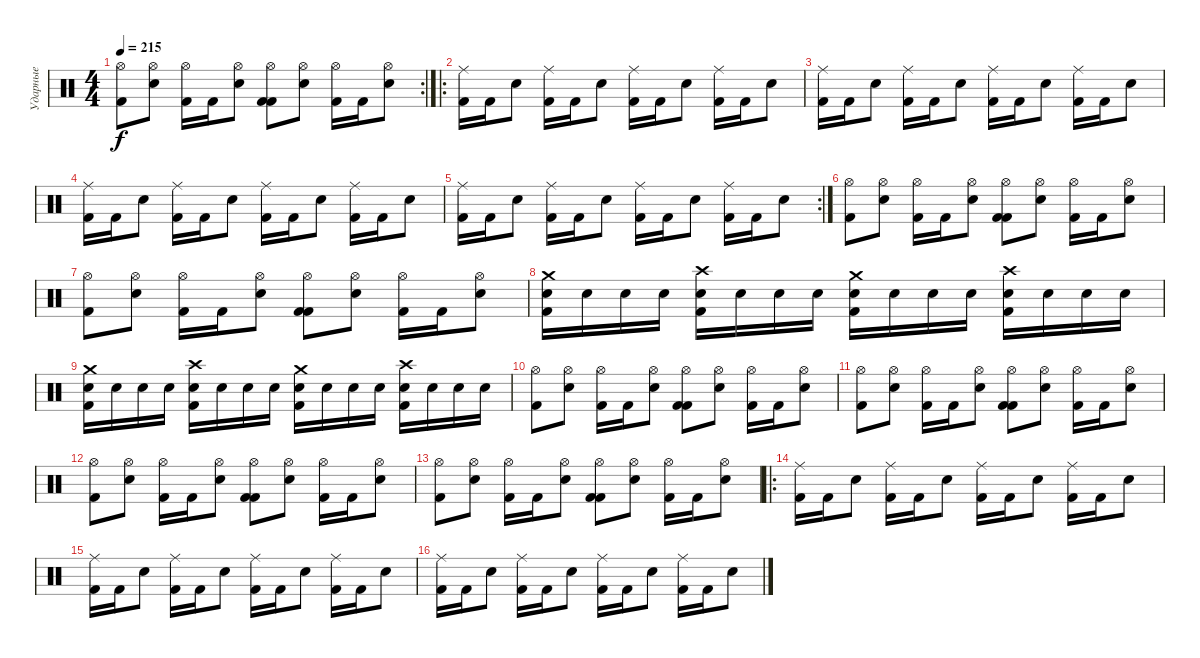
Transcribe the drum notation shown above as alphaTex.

\track ("Ударные" "Ударные") {instrument percussion}
\staff {score}
\articulation defaults
\rc 2
\ts (4 4)
\tempo 215
\clef neutral
\ks c
("Kick (hit) 2" "Hi-Hat (open)").8{dy f} ("Hi-Hat (open)" "Electric Snare (hit)").8 ("Kick (hit) 2" "Hi-Hat (open)").16 "Kick (hit) 2".16 ("Hi-Hat (open)" "Electric Snare (hit)").8 ("Kick (hit) 2" "Kick (hit) 2" "Hi-Hat (open)").8 ("Hi-Hat (open)" "Electric Snare (hit)").8 ("Kick (hit) 2" "Hi-Hat (open)").16 "Kick (hit) 2".16 ("Hi-Hat (open)" "Electric Snare (hit)").8 |
\ro
("Ride (middle)" "Kick (hit) 2").16 "Kick (hit) 2".16 "Electric Snare (hit)".8 ("Ride (middle)" "Kick (hit) 2").16 "Kick (hit) 2".16 "Electric Snare (hit)".8 ("Ride (middle)" "Kick (hit) 2").16 "Kick (hit) 2".16 "Electric Snare (hit)".8 ("Ride (middle)" "Kick (hit) 2").16 "Kick (hit) 2".16 "Electric Snare (hit)".8 |
("Ride (middle)" "Kick (hit) 2").16 "Kick (hit) 2".16 "Electric Snare (hit)".8 ("Ride (middle)" "Kick (hit) 2").16 "Kick (hit) 2".16 "Electric Snare (hit)".8 ("Ride (middle)" "Kick (hit) 2").16 "Kick (hit) 2".16 "Electric Snare (hit)".8 ("Ride (middle)" "Kick (hit) 2").16 "Kick (hit) 2".16 "Electric Snare (hit)".8 |
("Ride (middle)" "Kick (hit) 2").16 "Kick (hit) 2".16 "Electric Snare (hit)".8 ("Ride (middle)" "Kick (hit) 2").16 "Kick (hit) 2".16 "Electric Snare (hit)".8 ("Ride (middle)" "Kick (hit) 2").16 "Kick (hit) 2".16 "Electric Snare (hit)".8 ("Ride (middle)" "Kick (hit) 2").16 "Kick (hit) 2".16 "Electric Snare (hit)".8 |
\rc 2
("Ride (middle)" "Kick (hit) 2").16 "Kick (hit) 2".16 "Electric Snare (hit)".8 ("Ride (middle)" "Kick (hit) 2").16 "Kick (hit) 2".16 "Electric Snare (hit)".8 ("Ride (middle)" "Kick (hit) 2").16 "Kick (hit) 2".16 "Electric Snare (hit)".8 ("Ride (middle)" "Kick (hit) 2").16 "Kick (hit) 2".16 "Electric Snare (hit)".8 |
("Kick (hit) 2" "Hi-Hat (open)").8 ("Hi-Hat (open)" "Electric Snare (hit)").8 ("Kick (hit) 2" "Hi-Hat (open)").16 "Kick (hit) 2".16 ("Hi-Hat (open)" "Electric Snare (hit)").8 ("Kick (hit) 2" "Kick (hit) 2" "Hi-Hat (open)").8 ("Hi-Hat (open)" "Electric Snare (hit)").8 ("Kick (hit) 2" "Hi-Hat (open)").16 "Kick (hit) 2".16 ("Hi-Hat (open)" "Electric Snare (hit)").8 |
("Kick (hit) 2" "Hi-Hat (open)").8 ("Hi-Hat (open)" "Electric Snare (hit)").8 ("Kick (hit) 2" "Hi-Hat (open)").16 "Kick (hit) 2".16 ("Hi-Hat (open)" "Electric Snare (hit)").8 ("Kick (hit) 2" "Kick (hit) 2" "Hi-Hat (open)").8 ("Hi-Hat (open)" "Electric Snare (hit)").8 ("Kick (hit) 2" "Hi-Hat (open)").16 "Kick (hit) 2".16 ("Hi-Hat (open)" "Electric Snare (hit)").8 |
("Kick (hit) 2" "Snare (hit) 2" "Crash medium (hit)").16 "Snare (hit) 2".16 "Snare (hit) 2".16 "Snare (hit) 2".16 ("Kick (hit) 2" "Snare (hit) 2" "Crash high (hit)").16 "Snare (hit) 2".16 "Snare (hit) 2".16 "Snare (hit) 2".16 ("Kick (hit) 2" "Snare (hit) 2" "Crash medium (hit)").16 "Snare (hit) 2".16 "Snare (hit) 2".16 "Snare (hit) 2".16 ("Kick (hit) 2" "Snare (hit) 2" "Crash high (hit)").16 "Snare (hit) 2".16 "Snare (hit) 2".16 "Snare (hit) 2".16 |
("Kick (hit) 2" "Snare (hit) 2" "Crash medium (hit)").16 "Snare (hit) 2".16 "Snare (hit) 2".16 "Snare (hit) 2".16 ("Kick (hit) 2" "Snare (hit) 2" "Crash high (hit)").16 "Snare (hit) 2".16 "Snare (hit) 2".16 "Snare (hit) 2".16 ("Kick (hit) 2" "Snare (hit) 2" "Crash medium (hit)").16 "Snare (hit) 2".16 "Snare (hit) 2".16 "Snare (hit) 2".16 ("Kick (hit) 2" "Snare (hit) 2" "Crash high (hit)").16 "Snare (hit) 2".16 "Snare (hit) 2".16 "Snare (hit) 2".16 |
("Kick (hit) 2" "Hi-Hat (open)").8 ("Hi-Hat (open)" "Electric Snare (hit)").8 ("Kick (hit) 2" "Hi-Hat (open)").16 "Kick (hit) 2".16 ("Hi-Hat (open)" "Electric Snare (hit)").8 ("Kick (hit) 2" "Kick (hit) 2" "Hi-Hat (open)").8 ("Hi-Hat (open)" "Electric Snare (hit)").8 ("Kick (hit) 2" "Hi-Hat (open)").16 "Kick (hit) 2".16 ("Hi-Hat (open)" "Electric Snare (hit)").8 |
("Kick (hit) 2" "Hi-Hat (open)").8 ("Hi-Hat (open)" "Electric Snare (hit)").8 ("Kick (hit) 2" "Hi-Hat (open)").16 "Kick (hit) 2".16 ("Hi-Hat (open)" "Electric Snare (hit)").8 ("Kick (hit) 2" "Kick (hit) 2" "Hi-Hat (open)").8 ("Hi-Hat (open)" "Electric Snare (hit)").8 ("Kick (hit) 2" "Hi-Hat (open)").16 "Kick (hit) 2".16 ("Hi-Hat (open)" "Electric Snare (hit)").8 |
("Kick (hit) 2" "Hi-Hat (open)").8 ("Hi-Hat (open)" "Electric Snare (hit)").8 ("Kick (hit) 2" "Hi-Hat (open)").16 "Kick (hit) 2".16 ("Hi-Hat (open)" "Electric Snare (hit)").8 ("Kick (hit) 2" "Kick (hit) 2" "Hi-Hat (open)").8 ("Hi-Hat (open)" "Electric Snare (hit)").8 ("Kick (hit) 2" "Hi-Hat (open)").16 "Kick (hit) 2".16 ("Hi-Hat (open)" "Electric Snare (hit)").8 |
("Kick (hit) 2" "Hi-Hat (open)").8 ("Hi-Hat (open)" "Electric Snare (hit)").8 ("Kick (hit) 2" "Hi-Hat (open)").16 "Kick (hit) 2".16 ("Hi-Hat (open)" "Electric Snare (hit)").8 ("Kick (hit) 2" "Kick (hit) 2" "Hi-Hat (open)").8 ("Hi-Hat (open)" "Electric Snare (hit)").8 ("Kick (hit) 2" "Hi-Hat (open)").16 "Kick (hit) 2".16 ("Hi-Hat (open)" "Electric Snare (hit)").8 |
\ro
("Ride (middle)" "Kick (hit) 2").16 "Kick (hit) 2".16 "Electric Snare (hit)".8 ("Ride (middle)" "Kick (hit) 2").16 "Kick (hit) 2".16 "Electric Snare (hit)".8 ("Ride (middle)" "Kick (hit) 2").16 "Kick (hit) 2".16 "Electric Snare (hit)".8 ("Ride (middle)" "Kick (hit) 2").16 "Kick (hit) 2".16 "Electric Snare (hit)".8 |
("Ride (middle)" "Kick (hit) 2").16 "Kick (hit) 2".16 "Electric Snare (hit)".8 ("Ride (middle)" "Kick (hit) 2").16 "Kick (hit) 2".16 "Electric Snare (hit)".8 ("Ride (middle)" "Kick (hit) 2").16 "Kick (hit) 2".16 "Electric Snare (hit)".8 ("Ride (middle)" "Kick (hit) 2").16 "Kick (hit) 2".16 "Electric Snare (hit)".8 |
("Ride (middle)" "Kick (hit) 2").16 "Kick (hit) 2".16 "Electric Snare (hit)".8 ("Ride (middle)" "Kick (hit) 2").16 "Kick (hit) 2".16 "Electric Snare (hit)".8 ("Ride (middle)" "Kick (hit) 2").16 "Kick (hit) 2".16 "Electric Snare (hit)".8 ("Ride (middle)" "Kick (hit) 2").16 "Kick (hit) 2".16 "Electric Snare (hit)".8
